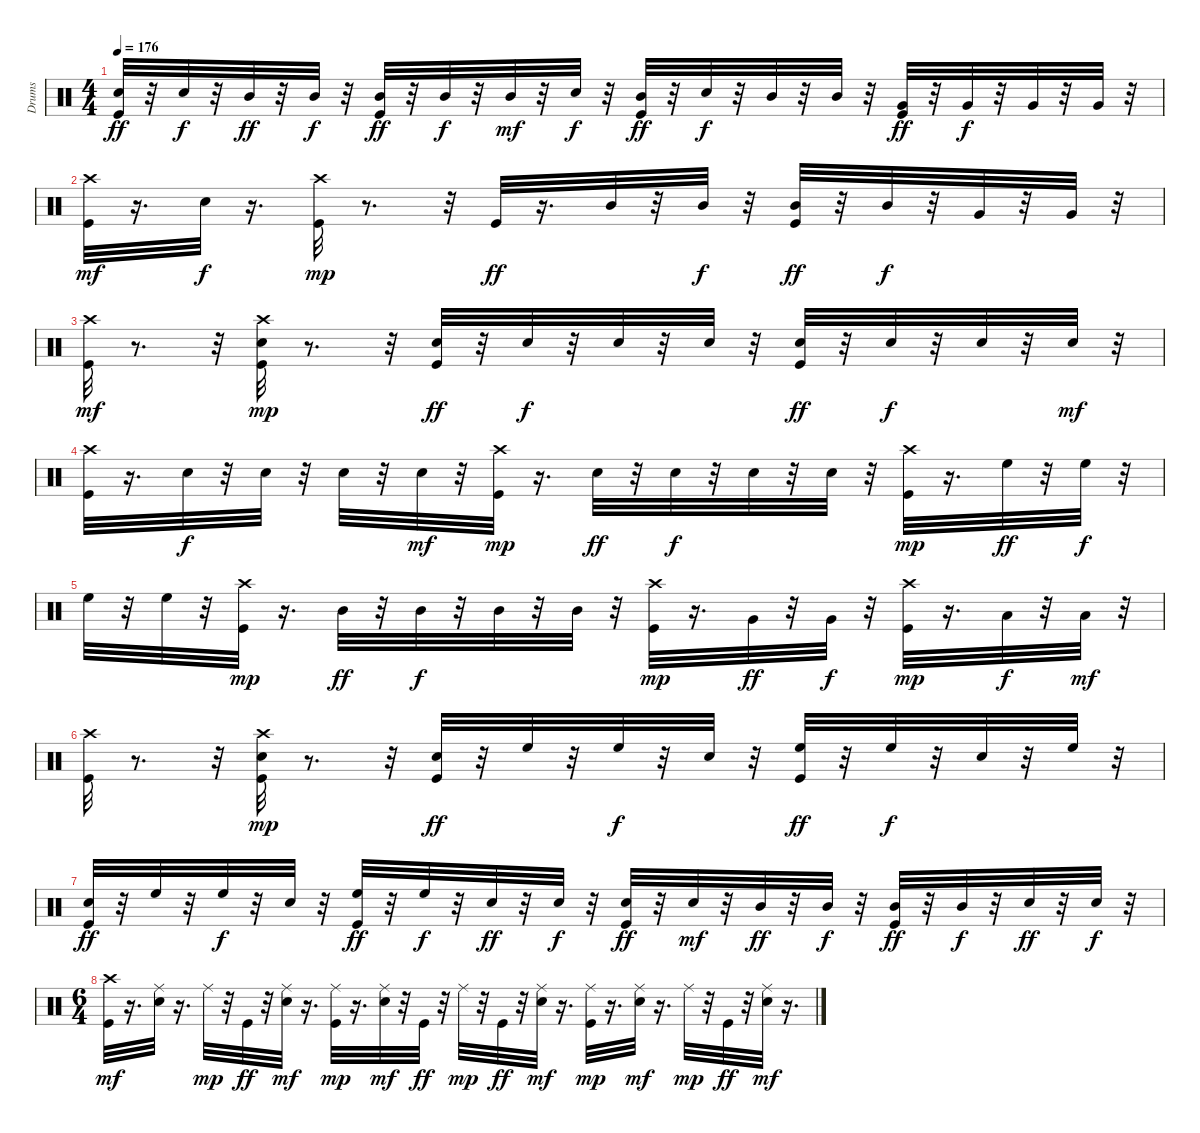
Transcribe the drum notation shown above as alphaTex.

\track ("Drums" "Drums") {instrument percussion}
\staff {score}
\articulation defaults
\ts (4 4)
\tempo 176
\clef neutral
\ks c
("Kick (hit)" "Snare (hit) 2").32{dy ff} r.32 "Snare (hit) 2".32{dy f} r.32 "Mid Tom (hit)".32{dy ff} r.32 "Mid Tom (hit)".32{dy f} r.32 ("Kick (hit)" "Mid Tom (hit)").32{dy ff} r.32 "Mid Tom (hit)".32{dy f} r.32 "Mid Tom (hit)".32{dy mf} r.32 "Snare (hit) 2".32{dy f} r.32 ("Kick (hit)" "Mid Tom (hit)").32{dy ff} r.32 "Snare (hit) 2".32{dy f} r.32 "Mid Tom (hit)".32 r.32 "Mid Tom (hit)".32 r.32 ("Kick (hit)" "Very Low Tom (hit)").32{dy ff} r.32 "Very Low Tom (hit)".32{dy f} r.32 "Very Low Tom (hit)".32 r.32 "Very Low Tom (hit)".32 r.32 |
("Kick (hit)" "Crash high (hit)").32{dy mf} r.16{d} "Snare (hit) 2".32{dy f} r.16{d} ("Kick (hit)" "Crash high (hit)").32{dy mp} r.8{d} r.32 "Kick (hit)".32{dy ff} r.16{d} "Mid Tom (hit)".32 r.32 "Mid Tom (hit)".32{dy f} r.32 ("Kick (hit)" "Mid Tom (hit)").32{dy ff} r.32 "Mid Tom (hit)".32{dy f} r.32 "Very Low Tom (hit)".32 r.32 "Very Low Tom (hit)".32 r.32 |
("Kick (hit)" "Crash high (hit)").32{dy mf} r.8{d} r.32 ("Kick (hit)" "Snare (hit) 2" "Crash high (hit)").32{dy mp} r.8{d} r.32 ("Kick (hit)" "Snare (hit) 2").32{dy ff} r.32 "Snare (hit) 2".32{dy f} r.32 "Snare (hit) 2".32 r.32 "Snare (hit) 2".32 r.32 ("Kick (hit)" "Snare (hit) 2").32{dy ff} r.32 "Snare (hit) 2".32{dy f} r.32 "Snare (hit) 2".32 r.32 "Snare (hit) 2".32{dy mf} r.32 |
("Kick (hit)" "Crash high (hit)").32 r.16{d} "Snare (hit) 2".32{dy f} r.32 "Snare (hit) 2".32 r.32 "Snare (hit) 2".32 r.32 "Snare (hit) 2".32{dy mf} r.32 ("Kick (hit)" "Crash high (hit)").32{dy mp} r.16{d} "Snare (hit) 2".32{dy ff} r.32 "Snare (hit) 2".32{dy f} r.32 "Snare (hit) 2".32 r.32 "Snare (hit) 2".32 r.32 ("Kick (hit)" "Crash high (hit)").32{dy mp} r.16{d} "High Floor Tom (hit)".32{dy ff} r.32 "High Floor Tom (hit)".32{dy f} r.32 |
"High Floor Tom (hit)".32 r.32 "High Floor Tom (hit)".32 r.32 ("Kick (hit)" "Crash high (hit)").32{dy mp} r.16{d} "Mid Tom (hit)".32{dy ff} r.32 "Mid Tom (hit)".32{dy f} r.32 "Mid Tom (hit)".32 r.32 "Mid Tom (hit)".32 r.32 ("Kick (hit)" "Crash high (hit)").32{dy mp} r.16{d} "Very Low Tom (hit)".32{dy ff} r.32 "Very Low Tom (hit)".32{dy f} r.32 ("Kick (hit)" "Crash high (hit)").32{dy mp} r.16{d} "Low Floor Tom (hit)".32{dy f} r.32 "Low Floor Tom (hit)".32{dy mf} r.32 |
("Kick (hit)" "Crash high (hit)").32 r.8{d} r.32 ("Kick (hit)" "Snare (hit) 2" "Crash high (hit)").32{dy mp} r.8{d} r.32 ("Kick (hit)" "Snare (hit) 2").32{dy ff} r.32 "High Floor Tom (hit)".32 r.32 "High Floor Tom (hit)".32{dy f} r.32 "Snare (hit) 2".32 r.32 ("Kick (hit)" "High Floor Tom (hit)").32{dy ff} r.32 "High Floor Tom (hit)".32{dy f} r.32 "Snare (hit) 2".32 r.32 "High Floor Tom (hit)".32 r.32 |
("Kick (hit)" "Snare (hit) 2").32{dy ff} r.32 "High Floor Tom (hit)".32 r.32 "High Floor Tom (hit)".32{dy f} r.32 "Snare (hit) 2".32 r.32 ("Kick (hit)" "High Floor Tom (hit)").32{dy ff} r.32 "High Floor Tom (hit)".32{dy f} r.32 "Snare (hit) 2".32{dy ff} r.32 "Snare (hit) 2".32{dy f} r.32 ("Kick (hit)" "Snare (hit) 2").32{dy ff} r.32 "Snare (hit) 2".32{dy mf} r.32 "Mid Tom (hit)".32{dy ff} r.32 "Mid Tom (hit)".32{dy f} r.32 ("Kick (hit)" "Mid Tom (hit)").32{dy ff} r.32 "Mid Tom (hit)".32{dy f} r.32 "Snare (hit) 2".32{dy ff} r.32 "Snare (hit) 2".32{dy f} r.32 |
\ts (6 4)
("Kick (hit)" "Crash high (hit)").32{dy mf} r.16{d} ("Snare (hit) 2" "Ride (middle)").32 r.16{d} "Ride (middle)".32{dy mp} r.32 "Kick (hit)".32{dy ff} r.32 ("Snare (hit) 2" "Ride (middle)").32{dy mf} r.16{d} ("Kick (hit)" "Ride (middle)").32{dy mp} r.16{d} ("Snare (hit) 2" "Ride (middle)").32{dy mf} r.32 "Kick (hit)".32{dy ff} r.32 "Ride (middle)".32{dy mp} r.32 "Kick (hit)".32{dy ff} r.32 ("Snare (hit) 2" "Ride (middle)").32{dy mf} r.16{d} ("Kick (hit)" "Ride (middle)").32{dy mp} r.16{d} ("Snare (hit) 2" "Ride (middle)").32{dy mf} r.16{d} "Ride (middle)".32{dy mp} r.32 "Kick (hit)".32{dy ff} r.32 ("Snare (hit) 2" "Ride (middle)").32{dy mf} r.16{d}
